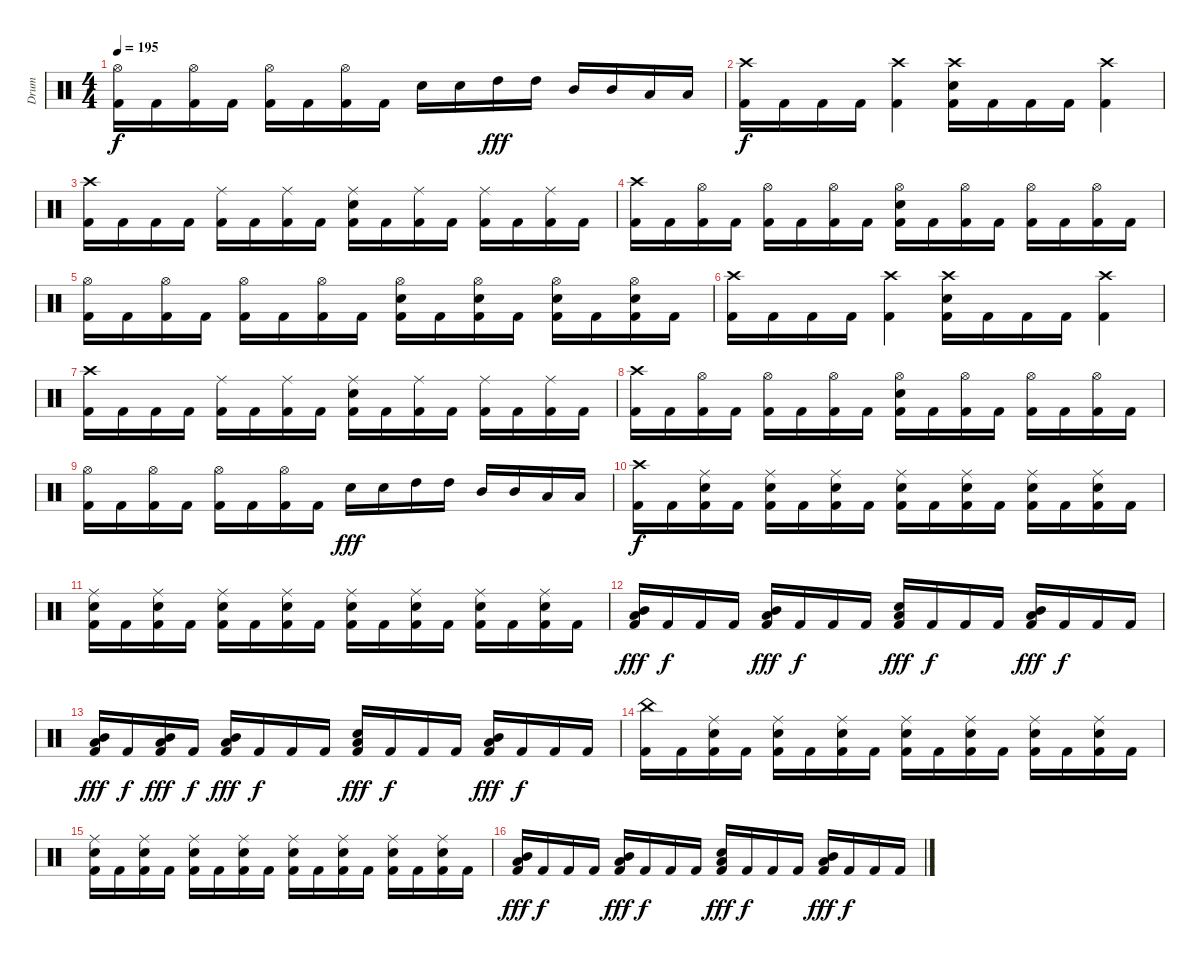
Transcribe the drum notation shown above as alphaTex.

\track ("Drum" "Drum") {instrument percussion}
\staff {score}
\articulation defaults
\ts (4 4)
\tempo 195
\clef neutral
\ks c
("Hi-Hat (open)" "Kick (hit) 2").16{dy f} "Kick (hit) 2".16 ("Hi-Hat (open)" "Kick (hit) 2").16 "Kick (hit) 2".16 ("Hi-Hat (open)" "Kick (hit) 2").16 "Kick (hit) 2".16 ("Hi-Hat (open)" "Kick (hit) 2").16 "Kick (hit) 2".16 "Electric Snare (hit)".16 "Electric Snare (hit)".16 "High Tom (hit)".16{dy fff} "High Tom (hit)".16 "Mid Tom (hit)".16 "Mid Tom (hit)".16 "Low Tom (hit)".16 "Low Tom (hit)".16 |
("Crash high (hit)" "Kick (hit) 2").16{dy f} "Kick (hit) 2".16 "Kick (hit) 2".16 "Kick (hit) 2".16 ("Crash high (hit)" "Kick (hit) 2").4 ("Crash high (hit)" "Electric Snare (hit)" "Kick (hit) 2").16 "Kick (hit) 2".16 "Kick (hit) 2".16 "Kick (hit) 2".16 ("Crash high (hit)" "Kick (hit) 2").4 |
("Crash high (hit)" "Kick (hit) 2").16 "Kick (hit) 2".16 "Kick (hit) 2".16 "Kick (hit) 2".16 ("Ride (middle)" "Kick (hit) 2").16 "Kick (hit) 2".16 ("Ride (middle)" "Kick (hit) 2").16 "Kick (hit) 2".16 ("Ride (middle)" "Electric Snare (hit)" "Kick (hit) 2").16 "Kick (hit) 2".16 ("Ride (middle)" "Kick (hit) 2").16 "Kick (hit) 2".16 ("Ride (middle)" "Kick (hit) 2").16 "Kick (hit) 2".16 ("Ride (middle)" "Kick (hit) 2").16 "Kick (hit) 2".16 |
("Crash high (hit)" "Kick (hit) 2").16 "Kick (hit) 2".16 ("Hi-Hat (open)" "Kick (hit) 2").16 "Kick (hit) 2".16 ("Hi-Hat (open)" "Kick (hit) 2").16 "Kick (hit) 2".16 ("Hi-Hat (open)" "Kick (hit) 2").16 "Kick (hit) 2".16 ("Hi-Hat (open)" "Electric Snare (hit)" "Kick (hit) 2").16 "Kick (hit) 2".16 ("Hi-Hat (open)" "Kick (hit) 2").16 "Kick (hit) 2".16 ("Hi-Hat (open)" "Kick (hit) 2").16 "Kick (hit) 2".16 ("Hi-Hat (open)" "Kick (hit) 2").16 "Kick (hit) 2".16 |
("Hi-Hat (open)" "Kick (hit) 2").16 "Kick (hit) 2".16 ("Hi-Hat (open)" "Kick (hit) 2").16 "Kick (hit) 2".16 ("Hi-Hat (open)" "Kick (hit) 2").16 "Kick (hit) 2".16 ("Hi-Hat (open)" "Kick (hit) 2").16 "Kick (hit) 2".16 ("Hi-Hat (open)" "Electric Snare (hit)" "Kick (hit) 2").16 "Kick (hit) 2".16 ("Hi-Hat (open)" "Electric Snare (hit)" "Kick (hit) 2").16 "Kick (hit) 2".16 ("Hi-Hat (open)" "Electric Snare (hit)" "Kick (hit) 2").16 "Kick (hit) 2".16 ("Hi-Hat (open)" "Electric Snare (hit)" "Kick (hit) 2").16 "Kick (hit) 2".16 |
("Crash high (hit)" "Kick (hit) 2").16 "Kick (hit) 2".16 "Kick (hit) 2".16 "Kick (hit) 2".16 ("Crash high (hit)" "Kick (hit) 2").4 ("Crash high (hit)" "Electric Snare (hit)" "Kick (hit) 2").16 "Kick (hit) 2".16 "Kick (hit) 2".16 "Kick (hit) 2".16 ("Crash high (hit)" "Kick (hit) 2").4 |
("Crash high (hit)" "Kick (hit) 2").16 "Kick (hit) 2".16 "Kick (hit) 2".16 "Kick (hit) 2".16 ("Ride (middle)" "Kick (hit) 2").16 "Kick (hit) 2".16 ("Ride (middle)" "Kick (hit) 2").16 "Kick (hit) 2".16 ("Ride (middle)" "Electric Snare (hit)" "Kick (hit) 2").16 "Kick (hit) 2".16 ("Ride (middle)" "Kick (hit) 2").16 "Kick (hit) 2".16 ("Ride (middle)" "Kick (hit) 2").16 "Kick (hit) 2".16 ("Ride (middle)" "Kick (hit) 2").16 "Kick (hit) 2".16 |
("Crash high (hit)" "Kick (hit) 2").16 "Kick (hit) 2".16 ("Hi-Hat (open)" "Kick (hit) 2").16 "Kick (hit) 2".16 ("Hi-Hat (open)" "Kick (hit) 2").16 "Kick (hit) 2".16 ("Hi-Hat (open)" "Kick (hit) 2").16 "Kick (hit) 2".16 ("Hi-Hat (open)" "Electric Snare (hit)" "Kick (hit) 2").16 "Kick (hit) 2".16 ("Hi-Hat (open)" "Kick (hit) 2").16 "Kick (hit) 2".16 ("Hi-Hat (open)" "Kick (hit) 2").16 "Kick (hit) 2".16 ("Hi-Hat (open)" "Kick (hit) 2").16 "Kick (hit) 2".16 |
("Hi-Hat (open)" "Kick (hit) 2").16 "Kick (hit) 2".16 ("Hi-Hat (open)" "Kick (hit) 2").16 "Kick (hit) 2".16 ("Hi-Hat (open)" "Kick (hit) 2").16 "Kick (hit) 2".16 ("Hi-Hat (open)" "Kick (hit) 2").16 "Kick (hit) 2".16 "Electric Snare (hit)".16{dy fff} "Electric Snare (hit)".16 "High Tom (hit)".16 "High Tom (hit)".16 "Mid Tom (hit)".16 "Mid Tom (hit)".16 "Low Tom (hit)".16 "Low Tom (hit)".16 |
("Crash high (hit)" "Kick (hit) 2").16{dy f} "Kick (hit) 2".16 ("Ride (middle)" "Electric Snare (hit)" "Kick (hit) 2").16 "Kick (hit) 2".16 ("Ride (middle)" "Electric Snare (hit)" "Kick (hit) 2").16 "Kick (hit) 2".16 ("Ride (middle)" "Electric Snare (hit)" "Kick (hit) 2").16 "Kick (hit) 2".16 ("Ride (middle)" "Electric Snare (hit)" "Kick (hit) 2").16 "Kick (hit) 2".16 ("Ride (middle)" "Electric Snare (hit)" "Kick (hit) 2").16 "Kick (hit) 2".16 ("Ride (middle)" "Electric Snare (hit)" "Kick (hit) 2").16 "Kick (hit) 2".16 ("Ride (middle)" "Electric Snare (hit)" "Kick (hit) 2").16 "Kick (hit) 2".16 |
("Ride (middle)" "Electric Snare (hit)" "Kick (hit) 2").16 "Kick (hit) 2".16 ("Ride (middle)" "Electric Snare (hit)" "Kick (hit) 2").16 "Kick (hit) 2".16 ("Ride (middle)" "Electric Snare (hit)" "Kick (hit) 2").16 "Kick (hit) 2".16 ("Ride (middle)" "Electric Snare (hit)" "Kick (hit) 2").16 "Kick (hit) 2".16 ("Ride (middle)" "Electric Snare (hit)" "Kick (hit) 2").16 "Kick (hit) 2".16 ("Ride (middle)" "Electric Snare (hit)" "Kick (hit) 2").16 "Kick (hit) 2".16 ("Ride (middle)" "Electric Snare (hit)" "Kick (hit) 2").16 "Kick (hit) 2".16 ("Ride (middle)" "Electric Snare (hit)" "Kick (hit) 2").16 "Kick (hit) 2".16 |
("Mid Tom (hit)" "Low Tom (hit)" "Kick (hit) 2").16{dy fff} "Kick (hit) 2".16{dy f} "Kick (hit) 2".16 "Kick (hit) 2".16 ("Mid Tom (hit)" "Low Tom (hit)" "Kick (hit) 2").16{dy fff} "Kick (hit) 2".16{dy f} "Kick (hit) 2".16 "Kick (hit) 2".16 ("Low Tom (hit)" "Electric Snare (hit)" "Kick (hit) 2").16{dy fff} "Kick (hit) 2".16{dy f} "Kick (hit) 2".16 "Kick (hit) 2".16 ("Mid Tom (hit)" "Low Tom (hit)" "Kick (hit) 2").16{dy fff} "Kick (hit) 2".16{dy f} "Kick (hit) 2".16 "Kick (hit) 2".16 |
("Mid Tom (hit)" "Low Tom (hit)" "Kick (hit) 2").16{dy fff} "Kick (hit) 2".16{dy f} ("Mid Tom (hit)" "Low Tom (hit)" "Kick (hit) 2").16{dy fff} "Kick (hit) 2".16{dy f} ("Mid Tom (hit)" "Low Tom (hit)" "Kick (hit) 2").16{dy fff} "Kick (hit) 2".16{dy f} "Kick (hit) 2".16 "Kick (hit) 2".16 ("Low Tom (hit)" "Electric Snare (hit)" "Kick (hit) 2").16{dy fff} "Kick (hit) 2".16{dy f} "Kick (hit) 2".16 "Kick (hit) 2".16 ("Mid Tom (hit)" "Low Tom (hit)" "Kick (hit) 2").16{dy fff} "Kick (hit) 2".16{dy f} "Kick (hit) 2".16 "Kick (hit) 2".16 |
("China (hit)" "Kick (hit) 2").16 "Kick (hit) 2".16 ("Ride (middle)" "Electric Snare (hit)" "Kick (hit) 2").16 "Kick (hit) 2".16 ("Ride (middle)" "Electric Snare (hit)" "Kick (hit) 2").16 "Kick (hit) 2".16 ("Ride (middle)" "Electric Snare (hit)" "Kick (hit) 2").16 "Kick (hit) 2".16 ("Ride (middle)" "Electric Snare (hit)" "Kick (hit) 2").16 "Kick (hit) 2".16 ("Ride (middle)" "Electric Snare (hit)" "Kick (hit) 2").16 "Kick (hit) 2".16 ("Ride (middle)" "Electric Snare (hit)" "Kick (hit) 2").16 "Kick (hit) 2".16 ("Ride (middle)" "Electric Snare (hit)" "Kick (hit) 2").16 "Kick (hit) 2".16 |
("Ride (middle)" "Electric Snare (hit)" "Kick (hit) 2").16 "Kick (hit) 2".16 ("Ride (middle)" "Electric Snare (hit)" "Kick (hit) 2").16 "Kick (hit) 2".16 ("Ride (middle)" "Electric Snare (hit)" "Kick (hit) 2").16 "Kick (hit) 2".16 ("Ride (middle)" "Electric Snare (hit)" "Kick (hit) 2").16 "Kick (hit) 2".16 ("Ride (middle)" "Electric Snare (hit)" "Kick (hit) 2").16 "Kick (hit) 2".16 ("Ride (middle)" "Electric Snare (hit)" "Kick (hit) 2").16 "Kick (hit) 2".16 ("Ride (middle)" "Electric Snare (hit)" "Kick (hit) 2").16 "Kick (hit) 2".16 ("Ride (middle)" "Electric Snare (hit)" "Kick (hit) 2").16 "Kick (hit) 2".16 |
("Mid Tom (hit)" "Low Tom (hit)" "Kick (hit) 2").16{dy fff} "Kick (hit) 2".16{dy f} "Kick (hit) 2".16 "Kick (hit) 2".16 ("Mid Tom (hit)" "Low Tom (hit)" "Kick (hit) 2").16{dy fff} "Kick (hit) 2".16{dy f} "Kick (hit) 2".16 "Kick (hit) 2".16 ("Low Tom (hit)" "Electric Snare (hit)" "Kick (hit) 2").16{dy fff} "Kick (hit) 2".16{dy f} "Kick (hit) 2".16 "Kick (hit) 2".16 ("Mid Tom (hit)" "Low Tom (hit)" "Kick (hit) 2").16{dy fff} "Kick (hit) 2".16{dy f} "Kick (hit) 2".16 "Kick (hit) 2".16
